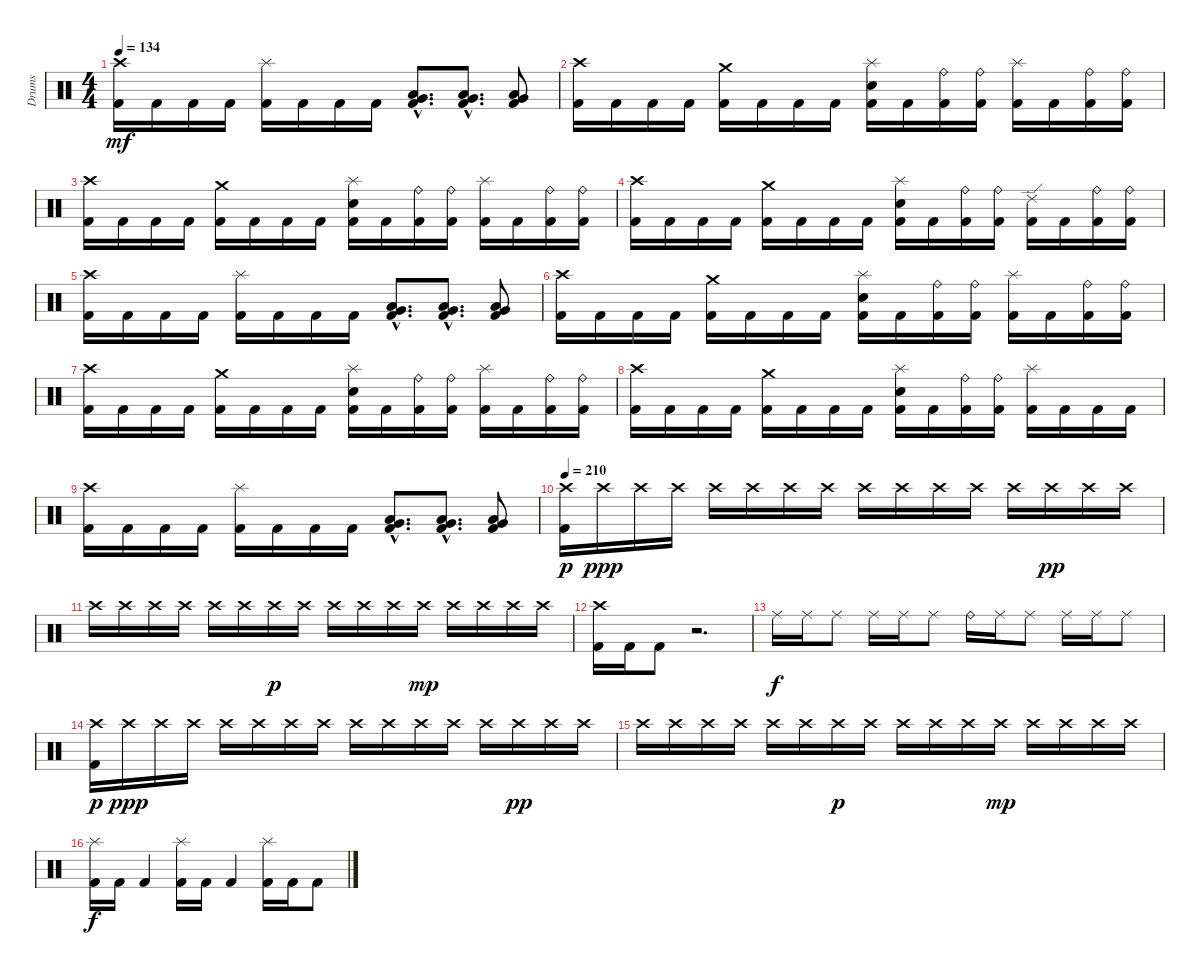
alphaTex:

\track ("Drums" "Drums") {instrument percussion}
\staff {score}
\articulation defaults
\ts (4 4)
\tempo 134
\clef neutral
\ks c
("Crash high (hit)" "Kick (hit) 2").16{dy mf} "Kick (hit) 2".16 "Kick (hit) 2".16 "Kick (hit) 2".16 ("Splash (hit)" "Kick (hit) 2").16 "Kick (hit) 2".16 "Kick (hit) 2".16 "Kick (hit) 2".16 ("Low Tom (hit)"{hac} "Very Low Tom (hit)"{hac} "Kick (hit) 2"{hac}).8{d} ("Low Tom (hit)"{hac} "Very Low Tom (hit)"{hac} "Kick (hit) 2"{hac}).8{d} ("Low Tom (hit)" "Very Low Tom (hit)" "Kick (hit) 2").8 |
("Crash high (hit)" "Kick (hit) 2").16 "Kick (hit) 2".16 "Kick (hit) 2".16 "Kick (hit) 2".16 ("Crash medium (hit)" "Kick (hit) 2").16 "Kick (hit) 2".16 "Kick (hit) 2".16 "Kick (hit) 2".16 ("Splash (hit)" "Electric Snare (hit)" "Kick (hit) 2").16 "Kick (hit) 2".16 ("Ride (bell)" "Kick (hit) 2").16 ("Ride (bell)" "Kick (hit) 2").16 ("Splash (hit)" "Kick (hit) 2").16 "Kick (hit) 2".16 ("Ride (bell)" "Kick (hit) 2").16 ("Ride (bell)" "Kick (hit) 2").16 |
("Crash high (hit)" "Kick (hit) 2").16 "Kick (hit) 2".16 "Kick (hit) 2".16 "Kick (hit) 2".16 ("Crash medium (hit)" "Kick (hit) 2").16 "Kick (hit) 2".16 "Kick (hit) 2".16 "Kick (hit) 2".16 ("Splash (hit)" "Electric Snare (hit)" "Kick (hit) 2").16 "Kick (hit) 2".16 ("Ride (bell)" "Kick (hit) 2").16 ("Ride (bell)" "Kick (hit) 2").16 ("Splash (hit)" "Kick (hit) 2").16 "Kick (hit) 2".16 ("Ride (bell)" "Kick (hit) 2").16 ("Ride (bell)" "Kick (hit) 2").16 |
("Crash high (hit)" "Kick (hit) 2").16 "Kick (hit) 2".16 "Kick (hit) 2".16 "Kick (hit) 2".16 ("Crash medium (hit)" "Kick (hit) 2").16 "Kick (hit) 2".16 "Kick (hit) 2".16 "Kick (hit) 2".16 ("Splash (hit)" "Electric Snare (hit)" "Kick (hit) 2").16 "Kick (hit) 2".16 ("Ride (bell)" "Kick (hit) 2").16 ("Ride (bell)" "Kick (hit) 2").16 ("Ride (edge) 2" "Kick (hit) 2").16 "Kick (hit) 2".16 ("Ride (bell)" "Kick (hit) 2").16 ("Ride (bell)" "Kick (hit) 2").16 |
("Crash high (hit)" "Kick (hit) 2").16 "Kick (hit) 2".16 "Kick (hit) 2".16 "Kick (hit) 2".16 ("Splash (hit)" "Kick (hit) 2").16 "Kick (hit) 2".16 "Kick (hit) 2".16 "Kick (hit) 2".16 ("Low Tom (hit)"{hac} "Very Low Tom (hit)"{hac} "Kick (hit) 2"{hac}).8{d} ("Low Tom (hit)"{hac} "Very Low Tom (hit)"{hac} "Kick (hit) 2"{hac}).8{d} ("Low Tom (hit)" "Very Low Tom (hit)" "Kick (hit) 2").8 |
("Crash high (hit)" "Kick (hit) 2").16 "Kick (hit) 2".16 "Kick (hit) 2".16 "Kick (hit) 2".16 ("Crash medium (hit)" "Kick (hit) 2").16 "Kick (hit) 2".16 "Kick (hit) 2".16 "Kick (hit) 2".16 ("Splash (hit)" "Electric Snare (hit)" "Kick (hit) 2").16 "Kick (hit) 2".16 ("Ride (bell)" "Kick (hit) 2").16 ("Ride (bell)" "Kick (hit) 2").16 ("Splash (hit)" "Kick (hit) 2").16 "Kick (hit) 2".16 ("Ride (bell)" "Kick (hit) 2").16 ("Ride (bell)" "Kick (hit) 2").16 |
("Crash high (hit)" "Kick (hit) 2").16 "Kick (hit) 2".16 "Kick (hit) 2".16 "Kick (hit) 2".16 ("Crash medium (hit)" "Kick (hit) 2").16 "Kick (hit) 2".16 "Kick (hit) 2".16 "Kick (hit) 2".16 ("Splash (hit)" "Electric Snare (hit)" "Kick (hit) 2").16 "Kick (hit) 2".16 ("Ride (bell)" "Kick (hit) 2").16 ("Ride (bell)" "Kick (hit) 2").16 ("Splash (hit)" "Kick (hit) 2").16 "Kick (hit) 2".16 ("Ride (bell)" "Kick (hit) 2").16 ("Ride (bell)" "Kick (hit) 2").16 |
("Crash high (hit)" "Kick (hit) 2").16 "Kick (hit) 2".16 "Kick (hit) 2".16 "Kick (hit) 2".16 ("Crash medium (hit)" "Kick (hit) 2").16 "Kick (hit) 2".16 "Kick (hit) 2".16 "Kick (hit) 2".16 ("Splash (hit)" "Electric Snare (hit)" "Kick (hit) 2").16 "Kick (hit) 2".16 ("Ride (bell)" "Kick (hit) 2").16 ("Ride (bell)" "Kick (hit) 2").16 ("Splash (hit)" "Kick (hit) 2").16 "Kick (hit) 2".16 "Kick (hit) 2".16 "Kick (hit) 2".16 |
("Crash high (hit)" "Kick (hit) 2").16 "Kick (hit) 2".16 "Kick (hit) 2".16 "Kick (hit) 2".16 ("Splash (hit)" "Kick (hit) 2").16 "Kick (hit) 2".16 "Kick (hit) 2".16 "Kick (hit) 2".16 ("Low Tom (hit)"{hac} "Very Low Tom (hit)"{hac} "Kick (hit) 2"{hac}).8{d} ("Low Tom (hit)"{hac} "Very Low Tom (hit)"{hac} "Kick (hit) 2"{hac}).8{d} ("Low Tom (hit)" "Very Low Tom (hit)" "Kick (hit) 2").8 |
\section ("" "")
\tempo 210
("Crash high (hit)" "Kick (hit) 2").16{dy p} "Crash high (hit)".16{dy ppp} "Crash high (hit)".16 "Crash high (hit)".16 "Crash high (hit)".16 "Crash high (hit)".16 "Crash high (hit)".16 "Crash high (hit)".16 "Crash high (hit)".16 "Crash high (hit)".16 "Crash high (hit)".16 "Crash high (hit)".16 "Crash high (hit)".16 "Crash high (hit)".16{dy pp} "Crash high (hit)".16 "Crash high (hit)".16 |
"Crash high (hit)".16 "Crash high (hit)".16 "Crash high (hit)".16 "Crash high (hit)".16 "Crash high (hit)".16 "Crash high (hit)".16 "Crash high (hit)".16{dy p} "Crash high (hit)".16 "Crash high (hit)".16 "Crash high (hit)".16 "Crash high (hit)".16 "Crash high (hit)".16{dy mp} "Crash high (hit)".16 "Crash high (hit)".16 "Crash high (hit)".16 "Crash high (hit)".16 |
("Crash high (hit)" "Kick (hit) 2").16 "Kick (hit) 2".16 "Kick (hit) 2".8 r.2{d} |
"Ride (middle)".16{dy f} "Ride (middle)".16 "Ride (middle)".8 "Ride (middle)".16 "Ride (middle)".16 "Ride (middle)".8 "Ride (bell)".16 "Ride (middle)".16 "Ride (middle)".8 "Ride (middle)".16 "Ride (middle)".16 "Ride (middle)".8 |
("Crash high (hit)" "Kick (hit) 2").16{dy p} "Crash high (hit)".16{dy ppp} "Crash high (hit)".16 "Crash high (hit)".16 "Crash high (hit)".16 "Crash high (hit)".16 "Crash high (hit)".16 "Crash high (hit)".16 "Crash high (hit)".16 "Crash high (hit)".16 "Crash high (hit)".16 "Crash high (hit)".16 "Crash high (hit)".16 "Crash high (hit)".16{dy pp} "Crash high (hit)".16 "Crash high (hit)".16 |
"Crash high (hit)".16 "Crash high (hit)".16 "Crash high (hit)".16 "Crash high (hit)".16 "Crash high (hit)".16 "Crash high (hit)".16 "Crash high (hit)".16{dy p} "Crash high (hit)".16 "Crash high (hit)".16 "Crash high (hit)".16 "Crash high (hit)".16 "Crash high (hit)".16{dy mp} "Crash high (hit)".16 "Crash high (hit)".16 "Crash high (hit)".16 "Crash high (hit)".16 |
("Splash (hit)" "Kick (hit) 2").16{dy f} "Kick (hit) 2".16 "Kick (hit) 2".4 ("Splash (hit)" "Kick (hit) 2").16 "Kick (hit) 2".16 "Kick (hit) 2".4 ("Splash (hit)" "Kick (hit) 2").16 "Kick (hit) 2".16 "Kick (hit) 2".8
